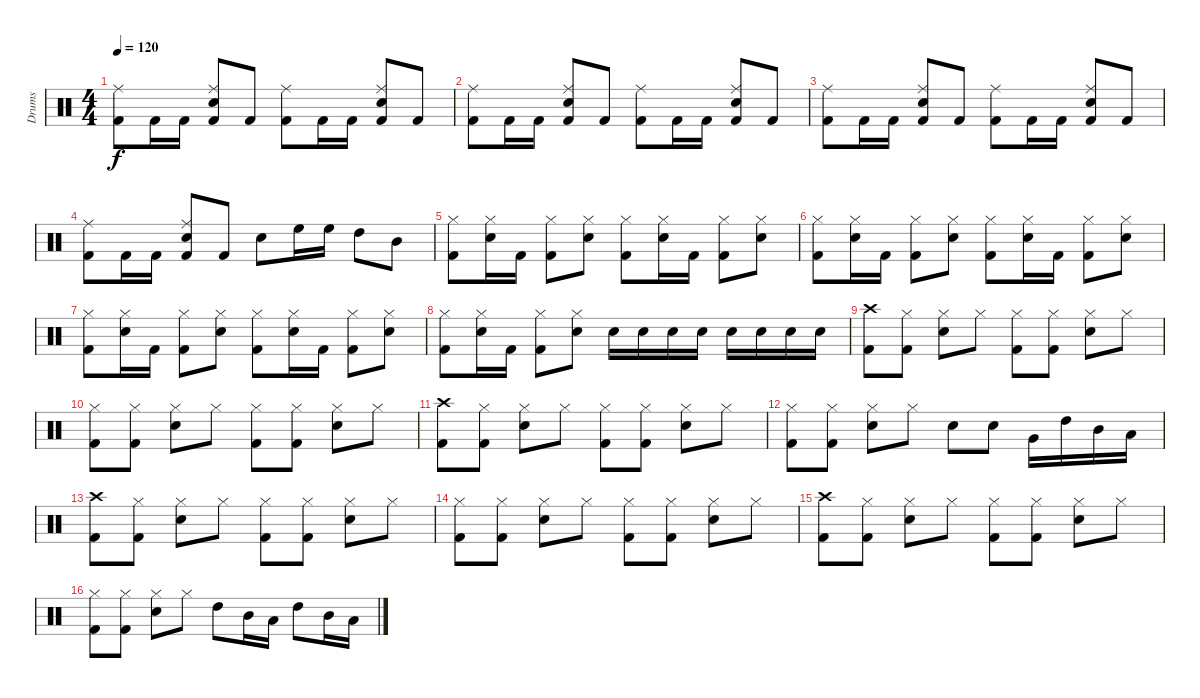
\track ("Drums" "Drums") {instrument percussion}
\staff {score}
\articulation defaults
\ts (4 4)
\tempo 120
\clef neutral
\ks c
("Kick (hit) 2" "Ride (middle)").8{dy f} "Kick (hit) 2".16 "Kick (hit) 2".16 ("Kick (hit) 2" "Electric Snare (hit)" "Ride (middle)").8 "Kick (hit) 2".8 ("Kick (hit) 2" "Ride (middle)").8 "Kick (hit) 2".16 "Kick (hit) 2".16 ("Kick (hit) 2" "Electric Snare (hit)" "Ride (middle)").8 "Kick (hit) 2".8 |
("Kick (hit) 2" "Ride (middle)").8 "Kick (hit) 2".16 "Kick (hit) 2".16 ("Kick (hit) 2" "Electric Snare (hit)" "Ride (middle)").8 "Kick (hit) 2".8 ("Kick (hit) 2" "Ride (middle)").8 "Kick (hit) 2".16 "Kick (hit) 2".16 ("Kick (hit) 2" "Electric Snare (hit)" "Ride (middle)").8 "Kick (hit) 2".8 |
("Kick (hit) 2" "Ride (middle)").8 "Kick (hit) 2".16 "Kick (hit) 2".16 ("Kick (hit) 2" "Electric Snare (hit)" "Ride (middle)").8 "Kick (hit) 2".8 ("Kick (hit) 2" "Ride (middle)").8 "Kick (hit) 2".16 "Kick (hit) 2".16 ("Kick (hit) 2" "Electric Snare (hit)" "Ride (middle)").8 "Kick (hit) 2".8 |
("Kick (hit) 2" "Ride (middle)").8 "Kick (hit) 2".16 "Kick (hit) 2".16 ("Kick (hit) 2" "Electric Snare (hit)" "Ride (middle)").8 "Kick (hit) 2".8 "Electric Snare (hit)".8 "High Floor Tom (hit)".16 "High Floor Tom (hit)".16 "High Tom (hit)".8 "Mid Tom (hit)".8 |
("Kick (hit) 2" "Hi-Hat (closed)").8 ("Electric Snare (hit)" "Hi-Hat (closed)").16 "Kick (hit) 2".16 ("Kick (hit) 2" "Hi-Hat (closed)").8 ("Electric Snare (hit)" "Hi-Hat (closed)").8 ("Kick (hit) 2" "Hi-Hat (closed)").8 ("Electric Snare (hit)" "Hi-Hat (closed)").16 "Kick (hit) 2".16 ("Kick (hit) 2" "Hi-Hat (closed)").8 ("Electric Snare (hit)" "Hi-Hat (closed)").8 |
("Kick (hit) 2" "Hi-Hat (closed)").8 ("Electric Snare (hit)" "Hi-Hat (closed)").16 "Kick (hit) 2".16 ("Kick (hit) 2" "Hi-Hat (closed)").8 ("Electric Snare (hit)" "Hi-Hat (closed)").8 ("Kick (hit) 2" "Hi-Hat (closed)").8 ("Electric Snare (hit)" "Hi-Hat (closed)").16 "Kick (hit) 2".16 ("Kick (hit) 2" "Hi-Hat (closed)").8 ("Electric Snare (hit)" "Hi-Hat (closed)").8 |
("Kick (hit) 2" "Hi-Hat (closed)").8 ("Electric Snare (hit)" "Hi-Hat (closed)").16 "Kick (hit) 2".16 ("Kick (hit) 2" "Hi-Hat (closed)").8 ("Electric Snare (hit)" "Hi-Hat (closed)").8 ("Kick (hit) 2" "Hi-Hat (closed)").8 ("Electric Snare (hit)" "Hi-Hat (closed)").16 "Kick (hit) 2".16 ("Kick (hit) 2" "Hi-Hat (closed)").8 ("Electric Snare (hit)" "Hi-Hat (closed)").8 |
("Kick (hit) 2" "Hi-Hat (closed)").8 ("Electric Snare (hit)" "Hi-Hat (closed)").16 "Kick (hit) 2".16 ("Kick (hit) 2" "Hi-Hat (closed)").8 ("Electric Snare (hit)" "Hi-Hat (closed)").8 "Electric Snare (hit)".16 "Electric Snare (hit)".16 "Electric Snare (hit)".16 "Electric Snare (hit)".16 "Electric Snare (hit)".16 "Electric Snare (hit)".16 "Electric Snare (hit)".16 "Electric Snare (hit)".16 |
("Kick (hit) 2" "Crash high (hit)").8 ("Kick (hit) 2" "Hi-Hat (closed)").8 ("Electric Snare (hit)" "Hi-Hat (closed)").8 "Hi-Hat (closed)".8 ("Kick (hit) 2" "Hi-Hat (closed)").8 ("Kick (hit) 2" "Hi-Hat (closed)").8 ("Electric Snare (hit)" "Hi-Hat (closed)").8 "Hi-Hat (closed)".8 |
("Kick (hit) 2" "Hi-Hat (closed)").8 ("Kick (hit) 2" "Hi-Hat (closed)").8 ("Electric Snare (hit)" "Hi-Hat (closed)").8 "Hi-Hat (closed)".8 ("Kick (hit) 2" "Hi-Hat (closed)").8 ("Kick (hit) 2" "Hi-Hat (closed)").8 ("Electric Snare (hit)" "Hi-Hat (closed)").8 "Hi-Hat (closed)".8 |
("Kick (hit) 2" "Crash high (hit)").8 ("Kick (hit) 2" "Hi-Hat (closed)").8 ("Electric Snare (hit)" "Hi-Hat (closed)").8 "Hi-Hat (closed)".8 ("Kick (hit) 2" "Hi-Hat (closed)").8 ("Kick (hit) 2" "Hi-Hat (closed)").8 ("Electric Snare (hit)" "Hi-Hat (closed)").8 "Hi-Hat (closed)".8 |
("Kick (hit) 2" "Hi-Hat (closed)").8 ("Kick (hit) 2" "Hi-Hat (closed)").8 ("Electric Snare (hit)" "Hi-Hat (closed)").8 "Hi-Hat (closed)".8 "Electric Snare (hit)".8 "Electric Snare (hit)".8 "Very Low Tom (hit)".16 "High Tom (hit)".16 "Mid Tom (hit)".16 "Low Tom (hit)".16 |
("Kick (hit) 2" "Crash high (hit)").8 ("Kick (hit) 2" "Hi-Hat (closed)").8 ("Electric Snare (hit)" "Hi-Hat (closed)").8 "Hi-Hat (closed)".8 ("Kick (hit) 2" "Hi-Hat (closed)").8 ("Kick (hit) 2" "Hi-Hat (closed)").8 ("Electric Snare (hit)" "Hi-Hat (closed)").8 "Hi-Hat (closed)".8 |
("Kick (hit) 2" "Hi-Hat (closed)").8 ("Kick (hit) 2" "Hi-Hat (closed)").8 ("Electric Snare (hit)" "Hi-Hat (closed)").8 "Hi-Hat (closed)".8 ("Kick (hit) 2" "Hi-Hat (closed)").8 ("Kick (hit) 2" "Hi-Hat (closed)").8 ("Electric Snare (hit)" "Hi-Hat (closed)").8 "Hi-Hat (closed)".8 |
("Kick (hit) 2" "Crash high (hit)").8 ("Kick (hit) 2" "Hi-Hat (closed)").8 ("Electric Snare (hit)" "Hi-Hat (closed)").8 "Hi-Hat (closed)".8 ("Kick (hit) 2" "Hi-Hat (closed)").8 ("Kick (hit) 2" "Hi-Hat (closed)").8 ("Electric Snare (hit)" "Hi-Hat (closed)").8 "Hi-Hat (closed)".8 |
("Kick (hit) 2" "Hi-Hat (closed)").8 ("Kick (hit) 2" "Hi-Hat (closed)").8 ("Electric Snare (hit)" "Hi-Hat (closed)").8 "Hi-Hat (closed)".8 "High Tom (hit)".8 "Mid Tom (hit)".16 "Low Tom (hit)".16 "High Tom (hit)".8 "Mid Tom (hit)".16 "Low Tom (hit)".16
